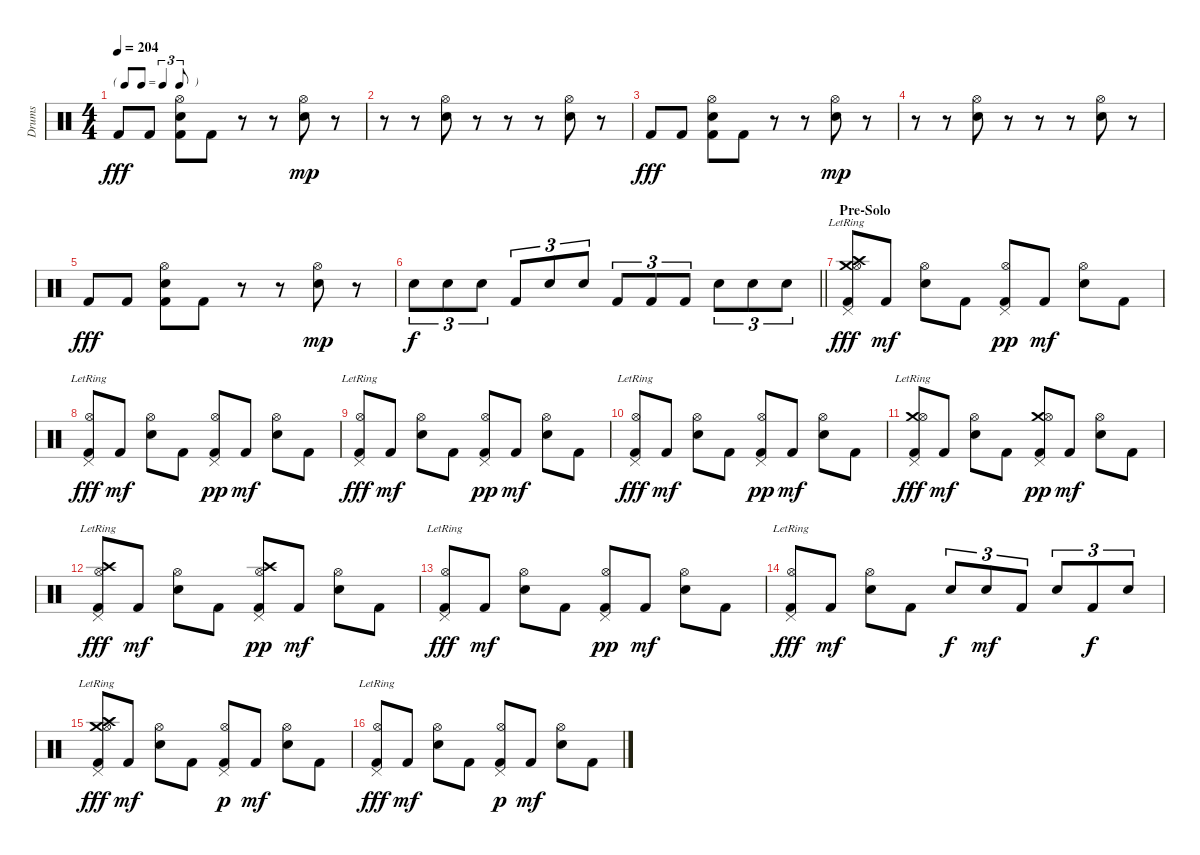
\track ("Drums" "Drums") {instrument percussion}
\staff {score}
\articulation defaults
\ts (4 4)
\tf triplet8th
\tempo 204
\clef neutral
\ks c "Kick (hit) 2".8{dy fff} "Kick (hit) 2".8
("Electric Snare (hit)" "Hi-Hat (open)" "Kick (hit) 2").8 "Kick (hit) 2".8 r.8 r.8 ("Electric Snare (hit)" "Hi-Hat (open)").8{dy mp} r.8 |
r.8 r.8 ("Electric Snare (hit)" "Hi-Hat (open)").8 r.8 r.8 r.8 ("Electric Snare (hit)" "Hi-Hat (open)").8 r.8 |
"Kick (hit) 2".8{dy fff} "Kick (hit) 2".8 ("Electric Snare (hit)" "Hi-Hat (open)" "Kick (hit) 2").8 "Kick (hit) 2".8 r.8 r.8 ("Electric Snare (hit)" "Hi-Hat (open)").8{dy mp} r.8 |
r.8 r.8 ("Electric Snare (hit)" "Hi-Hat (open)").8 r.8 r.8 r.8 ("Electric Snare (hit)" "Hi-Hat (open)").8 r.8 |
"Kick (hit) 2".8{dy fff} "Kick (hit) 2".8 ("Electric Snare (hit)" "Hi-Hat (open)" "Kick (hit) 2").8 "Kick (hit) 2".8 r.8 r.8 ("Electric Snare (hit)" "Hi-Hat (open)").8{dy mp} r.8 |
\barLineRight lightlight "Electric Snare (hit)".8{tu (3 2) dy f} "Electric Snare (hit)".8{tu (3 2)} "Electric Snare (hit)".8{tu (3 2)} "Kick (hit) 2".8{tu (3 2)} "Electric Snare (hit)".8{tu (3 2)} "Electric Snare (hit)".8{tu (3 2)} "Kick (hit) 2".8{tu (3 2)} "Kick (hit) 2".8{tu (3 2)} "Kick (hit) 2".8{tu (3 2)} "Electric Snare (hit)".8{tu (3 2)} "Electric Snare (hit)".8{tu (3 2)} "Electric Snare (hit)".8{tu (3 2)}
|
\section ("" "Pre-Solo")
("Crash medium (hit)" "Crash high (hit)" "Pedal Hi-Hat (hit)" "Hi-Hat (open)" "Kick (hit) 2"{lr}).8{dy fff} "Kick (hit) 2".8{dy mf} ("Hi-Hat (open)" "Electric Snare (hit)").8 "Kick (hit) 2".8 ("Pedal Hi-Hat (hit)" "Hi-Hat (open)" "Kick (hit) 2").8{dy pp} "Kick (hit) 2".8{dy mf} ("Hi-Hat (open)" "Electric Snare (hit)").8 "Kick (hit) 2".8 |
("Pedal Hi-Hat (hit)" "Hi-Hat (open)" "Kick (hit) 2"{lr}).8{dy fff} "Kick (hit) 2".8{dy mf} ("Hi-Hat (open)" "Electric Snare (hit)").8 "Kick (hit) 2".8 ("Pedal Hi-Hat (hit)" "Hi-Hat (open)" "Kick (hit) 2").8{dy pp} "Kick (hit) 2".8{dy mf} ("Hi-Hat (open)" "Electric Snare (hit)").8 "Kick (hit) 2".8 |
("Pedal Hi-Hat (hit)" "Hi-Hat (open)" "Kick (hit) 2"{lr}).8{dy fff} "Kick (hit) 2".8{dy mf} ("Hi-Hat (open)" "Electric Snare (hit)").8 "Kick (hit) 2".8 ("Pedal Hi-Hat (hit)" "Hi-Hat (open)" "Kick (hit) 2").8{dy pp} "Kick (hit) 2".8{dy mf} ("Hi-Hat (open)" "Electric Snare (hit)").8 "Kick (hit) 2".8 |
("Pedal Hi-Hat (hit)" "Hi-Hat (open)" "Kick (hit) 2"{lr}).8{dy fff} "Kick (hit) 2".8{dy mf} ("Hi-Hat (open)" "Electric Snare (hit)").8 "Kick (hit) 2".8 ("Pedal Hi-Hat (hit)" "Hi-Hat (open)" "Kick (hit) 2").8{dy pp} "Kick (hit) 2".8{dy mf} ("Hi-Hat (open)" "Electric Snare (hit)").8 "Kick (hit) 2".8 |
("Crash medium (hit)" "Pedal Hi-Hat (hit)" "Hi-Hat (open)" "Kick (hit) 2"{lr}).8{dy fff} "Kick (hit) 2".8{dy mf} ("Hi-Hat (open)" "Electric Snare (hit)").8 "Kick (hit) 2".8 ("Crash medium (hit)" "Pedal Hi-Hat (hit)" "Hi-Hat (open)" "Kick (hit) 2").8{dy pp} "Kick (hit) 2".8{dy mf} ("Hi-Hat (open)" "Electric Snare (hit)").8 "Kick (hit) 2".8 |
("Crash high (hit)" "Pedal Hi-Hat (hit)" "Hi-Hat (open)" "Kick (hit) 2"{lr}).8{dy fff} "Kick (hit) 2".8{dy mf} ("Hi-Hat (open)" "Electric Snare (hit)").8 "Kick (hit) 2".8 ("Crash high (hit)" "Pedal Hi-Hat (hit)" "Hi-Hat (open)" "Kick (hit) 2").8{dy pp} "Kick (hit) 2".8{dy mf} ("Hi-Hat (open)" "Electric Snare (hit)").8 "Kick (hit) 2".8 |
("Pedal Hi-Hat (hit)" "Hi-Hat (open)" "Kick (hit) 2"{lr}).8{dy fff} "Kick (hit) 2".8{dy mf} ("Hi-Hat (open)" "Electric Snare (hit)").8 "Kick (hit) 2".8 ("Pedal Hi-Hat (hit)" "Hi-Hat (open)" "Kick (hit) 2").8{dy pp} "Kick (hit) 2".8{dy mf} ("Hi-Hat (open)" "Electric Snare (hit)").8 "Kick (hit) 2".8 |
("Pedal Hi-Hat (hit)" "Hi-Hat (open)" "Kick (hit) 2"{lr}).8{dy fff} "Kick (hit) 2".8{dy mf} ("Hi-Hat (open)" "Electric Snare (hit)").8 "Kick (hit) 2".8 "Electric Snare (hit)".8{tu (3 2) dy f} "Electric Snare (hit)".8{tu (3 2) dy mf} "Kick (hit) 2".8{tu (3 2)} "Electric Snare (hit)".8{tu (3 2)} "Kick (hit) 2".8{tu (3 2) dy f} "Electric Snare (hit)".8{tu (3 2)} |
("Crash medium (hit)" "Crash high (hit)" "Pedal Hi-Hat (hit)" "Hi-Hat (open)" "Kick (hit) 2"{lr}).8{dy fff} "Kick (hit) 2".8{dy mf} ("Hi-Hat (open)" "Electric Snare (hit)").8 "Kick (hit) 2".8 ("Pedal Hi-Hat (hit)" "Hi-Hat (open)" "Kick (hit) 2").8{dy p} "Kick (hit) 2".8{dy mf} ("Hi-Hat (open)" "Electric Snare (hit)").8 "Kick (hit) 2".8 |
("Pedal Hi-Hat (hit)" "Hi-Hat (open)" "Kick (hit) 2"{lr}).8{dy fff} "Kick (hit) 2".8{dy mf} ("Hi-Hat (open)" "Electric Snare (hit)").8 "Kick (hit) 2".8 ("Pedal Hi-Hat (hit)" "Hi-Hat (open)" "Kick (hit) 2").8{dy p} "Kick (hit) 2".8{dy mf} ("Hi-Hat (open)" "Electric Snare (hit)").8 "Kick (hit) 2".8
